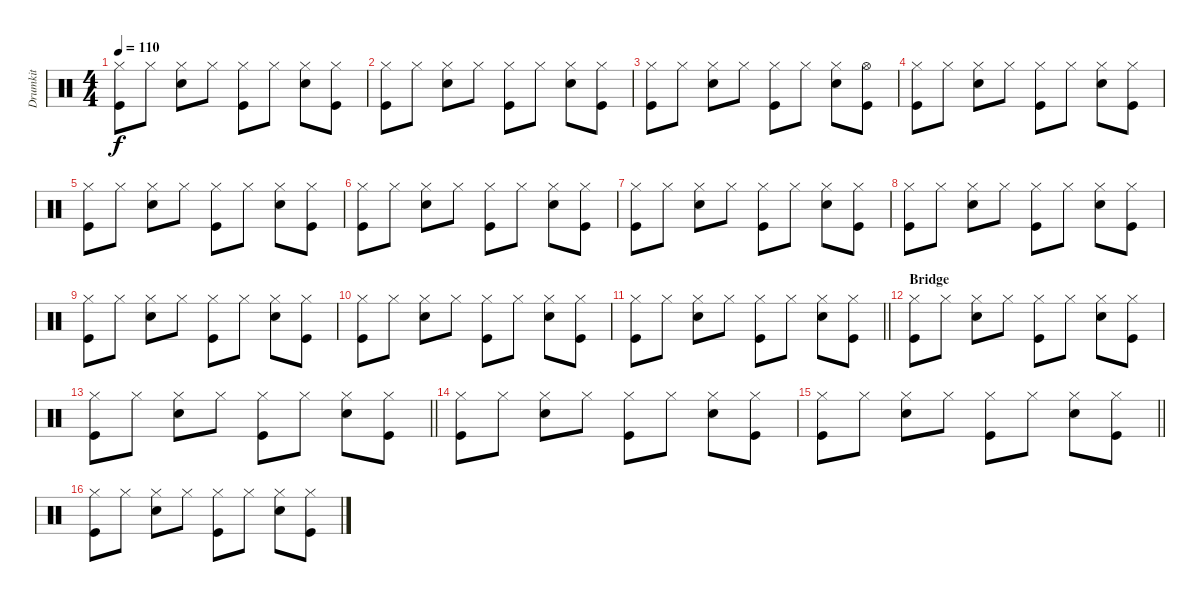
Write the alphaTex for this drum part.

\track ("Drumkit" "Drumkit") {instrument percussion}
\staff {score}
\articulation defaults
\ts (4 4)
\tempo 110
\clef neutral
\ks c
("Hi-Hat (closed)" "Kick (hit)").8{dy f} "Hi-Hat (closed)".8 ("Hi-Hat (closed)" "Snare (hit) 2").8 "Hi-Hat (closed)".8 ("Hi-Hat (closed)" "Kick (hit)").8 "Hi-Hat (closed)".8 ("Hi-Hat (closed)" "Snare (hit) 2").8 ("Hi-Hat (closed)" "Kick (hit)").8 |
("Hi-Hat (closed)" "Kick (hit)").8 "Hi-Hat (closed)".8 ("Hi-Hat (closed)" "Snare (hit) 2").8 "Hi-Hat (closed)".8 ("Hi-Hat (closed)" "Kick (hit)").8 "Hi-Hat (closed)".8 ("Hi-Hat (closed)" "Snare (hit) 2").8 ("Hi-Hat (closed)" "Kick (hit)").8 |
("Hi-Hat (closed)" "Kick (hit)").8 "Hi-Hat (closed)".8 ("Hi-Hat (closed)" "Snare (hit) 2").8 "Hi-Hat (closed)".8 ("Hi-Hat (closed)" "Kick (hit)").8 "Hi-Hat (closed)".8 ("Hi-Hat (closed)" "Snare (hit) 2").8 ("Hi-Hat (open)" "Kick (hit)").8 |
("Hi-Hat (closed)" "Kick (hit)").8 "Hi-Hat (closed)".8 ("Hi-Hat (closed)" "Snare (hit) 2").8 "Hi-Hat (closed)".8 ("Hi-Hat (closed)" "Kick (hit)").8 "Hi-Hat (closed)".8 ("Hi-Hat (closed)" "Snare (hit) 2").8 ("Hi-Hat (closed)" "Kick (hit)").8 |
("Hi-Hat (closed)" "Kick (hit)").8 "Hi-Hat (closed)".8 ("Hi-Hat (closed)" "Snare (hit) 2").8 "Hi-Hat (closed)".8 ("Hi-Hat (closed)" "Kick (hit)").8 "Hi-Hat (closed)".8 ("Hi-Hat (closed)" "Snare (hit) 2").8 ("Hi-Hat (closed)" "Kick (hit)").8 |
("Hi-Hat (closed)" "Kick (hit)").8 "Hi-Hat (closed)".8 ("Hi-Hat (closed)" "Snare (hit) 2").8 "Hi-Hat (closed)".8 ("Hi-Hat (closed)" "Kick (hit)").8 "Hi-Hat (closed)".8 ("Hi-Hat (closed)" "Snare (hit) 2").8 ("Hi-Hat (closed)" "Kick (hit)").8 |
("Hi-Hat (closed)" "Kick (hit)").8 "Hi-Hat (closed)".8 ("Hi-Hat (closed)" "Snare (hit) 2").8 "Hi-Hat (closed)".8 ("Hi-Hat (closed)" "Kick (hit)").8 "Hi-Hat (closed)".8 ("Hi-Hat (closed)" "Snare (hit) 2").8 ("Hi-Hat (closed)" "Kick (hit)").8 |
("Hi-Hat (closed)" "Kick (hit)").8 "Hi-Hat (closed)".8 ("Hi-Hat (closed)" "Snare (hit) 2").8 "Hi-Hat (closed)".8 ("Hi-Hat (closed)" "Kick (hit)").8 "Hi-Hat (closed)".8 ("Hi-Hat (closed)" "Snare (hit) 2").8 ("Hi-Hat (closed)" "Kick (hit)").8 |
("Hi-Hat (closed)" "Kick (hit)").8 "Hi-Hat (closed)".8 ("Hi-Hat (closed)" "Snare (hit) 2").8 "Hi-Hat (closed)".8 ("Hi-Hat (closed)" "Kick (hit)").8 "Hi-Hat (closed)".8 ("Hi-Hat (closed)" "Snare (hit) 2").8 ("Hi-Hat (closed)" "Kick (hit)").8 |
("Hi-Hat (closed)" "Kick (hit)").8 "Hi-Hat (closed)".8 ("Hi-Hat (closed)" "Snare (hit) 2").8 "Hi-Hat (closed)".8 ("Hi-Hat (closed)" "Kick (hit)").8 "Hi-Hat (closed)".8 ("Hi-Hat (closed)" "Snare (hit) 2").8 ("Hi-Hat (closed)" "Kick (hit)").8 |
\barLineRight lightlight
("Hi-Hat (closed)" "Kick (hit)").8 "Hi-Hat (closed)".8 ("Hi-Hat (closed)" "Snare (hit) 2").8 "Hi-Hat (closed)".8 ("Hi-Hat (closed)" "Kick (hit)").8 "Hi-Hat (closed)".8 ("Hi-Hat (closed)" "Snare (hit) 2").8 ("Hi-Hat (closed)" "Kick (hit)").8 |
\section ("" "Bridge")
("Hi-Hat (closed)" "Kick (hit)").8 "Hi-Hat (closed)".8 ("Hi-Hat (closed)" "Snare (hit) 2").8 "Hi-Hat (closed)".8 ("Hi-Hat (closed)" "Kick (hit)").8 "Hi-Hat (closed)".8 ("Hi-Hat (closed)" "Snare (hit) 2").8 ("Hi-Hat (closed)" "Kick (hit)").8 |
\barLineRight lightlight
("Hi-Hat (closed)" "Kick (hit)").8 "Hi-Hat (closed)".8 ("Hi-Hat (closed)" "Snare (hit) 2").8 "Hi-Hat (closed)".8 ("Hi-Hat (closed)" "Kick (hit)").8 "Hi-Hat (closed)".8 ("Hi-Hat (closed)" "Snare (hit) 2").8 ("Hi-Hat (closed)" "Kick (hit)").8 |
("Hi-Hat (closed)" "Kick (hit)").8 "Hi-Hat (closed)".8 ("Hi-Hat (closed)" "Snare (hit) 2").8 "Hi-Hat (closed)".8 ("Hi-Hat (closed)" "Kick (hit)").8 "Hi-Hat (closed)".8 ("Hi-Hat (closed)" "Snare (hit) 2").8 ("Hi-Hat (closed)" "Kick (hit)").8 |
\barLineRight lightlight
("Hi-Hat (closed)" "Kick (hit)").8 "Hi-Hat (closed)".8 ("Hi-Hat (closed)" "Snare (hit) 2").8 "Hi-Hat (closed)".8 ("Hi-Hat (closed)" "Kick (hit)").8 "Hi-Hat (closed)".8 ("Hi-Hat (closed)" "Snare (hit) 2").8 ("Hi-Hat (closed)" "Kick (hit)").8 |
("Hi-Hat (closed)" "Kick (hit)").8 "Hi-Hat (closed)".8 ("Hi-Hat (closed)" "Snare (hit) 2").8 "Hi-Hat (closed)".8 ("Hi-Hat (closed)" "Kick (hit)").8 "Hi-Hat (closed)".8 ("Hi-Hat (closed)" "Snare (hit) 2").8 ("Hi-Hat (closed)" "Kick (hit)").8
